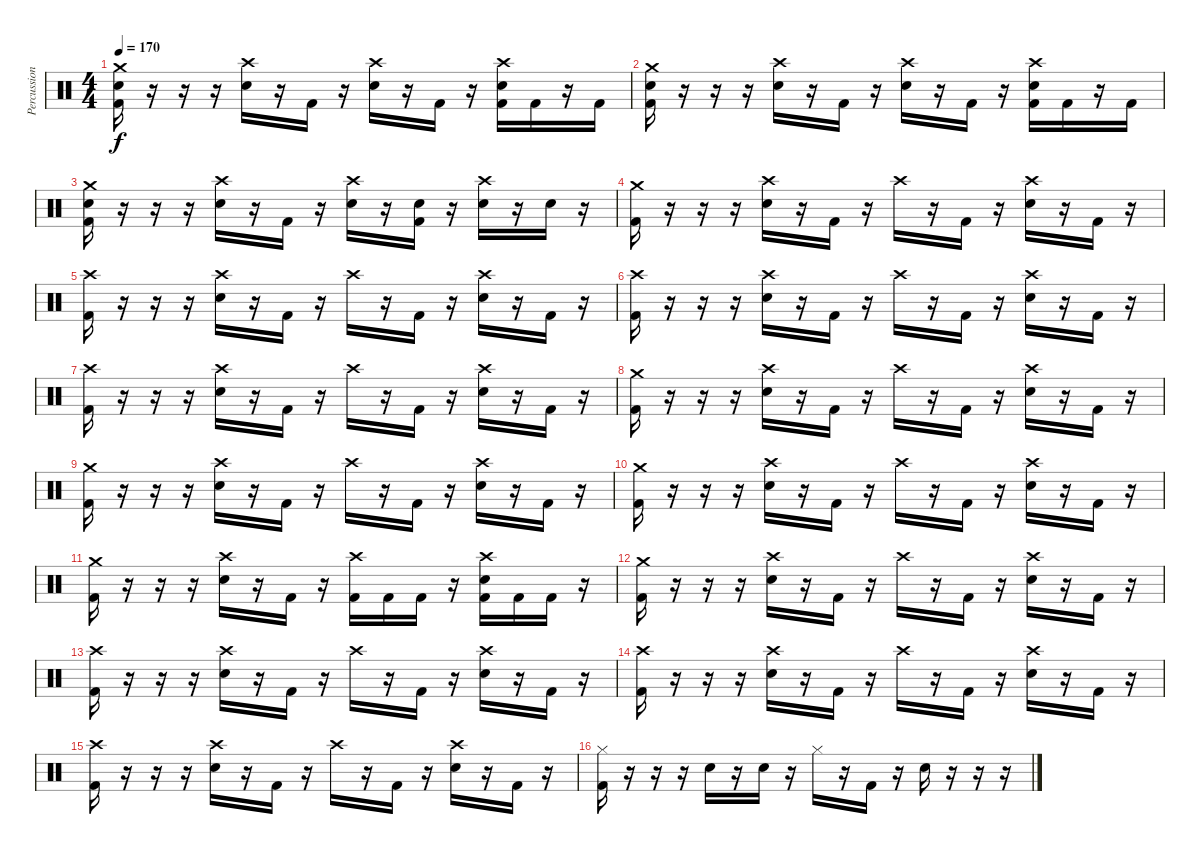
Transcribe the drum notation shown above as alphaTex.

\track ("Percussion" "Percussion") {instrument percussion}
\staff {score}
\articulation defaults
\ts (4 4)
\tempo 170
\clef neutral
\ks c
("Crash medium (hit)" "Snare (hit) 2" "Kick (hit) 2").16{dy f} r.16 r.16 r.16 ("Crash high (hit)" "Snare (hit) 2").16 r.16 "Kick (hit) 2".16 r.16 ("Crash high (hit)" "Snare (hit) 2").16 r.16 "Kick (hit) 2".16 r.16 ("Crash high (hit)" "Snare (hit) 2" "Kick (hit) 2").16 "Kick (hit) 2".16 r.16 "Kick (hit) 2".16 |
("Crash medium (hit)" "Snare (hit) 2" "Kick (hit) 2").16 r.16 r.16 r.16 ("Crash high (hit)" "Snare (hit) 2").16 r.16 "Kick (hit) 2".16 r.16 ("Crash high (hit)" "Snare (hit) 2").16 r.16 "Kick (hit) 2".16 r.16 ("Crash high (hit)" "Snare (hit) 2" "Kick (hit) 2").16 "Kick (hit) 2".16 r.16 "Kick (hit) 2".16 |
("Crash medium (hit)" "Snare (hit) 2" "Kick (hit) 2").16 r.16 r.16 r.16 ("Crash high (hit)" "Snare (hit) 2").16 r.16 "Kick (hit) 2".16 r.16 ("Crash high (hit)" "Snare (hit) 2").16 r.16 ("Snare (hit) 2" "Kick (hit) 2").16 r.16 ("Crash high (hit)" "Snare (hit) 2").16 r.16 "Snare (hit) 2".16 r.16 |
("Crash medium (hit)" "Kick (hit) 2").16 r.16 r.16 r.16 ("Crash high (hit)" "Snare (hit) 2").16 r.16 "Kick (hit) 2".16 r.16 "Crash high (hit)".16 r.16 "Kick (hit) 2".16 r.16 ("Crash high (hit)" "Snare (hit) 2").16 r.16 "Kick (hit) 2".16 r.16 |
("Crash high (hit)" "Kick (hit) 2").16 r.16 r.16 r.16 ("Crash high (hit)" "Snare (hit) 2").16 r.16 "Kick (hit) 2".16 r.16 "Crash high (hit)".16 r.16 "Kick (hit) 2".16 r.16 ("Crash high (hit)" "Snare (hit) 2").16 r.16 "Kick (hit) 2".16 r.16 |
("Crash high (hit)" "Kick (hit) 2").16 r.16 r.16 r.16 ("Crash high (hit)" "Snare (hit) 2").16 r.16 "Kick (hit) 2".16 r.16 "Crash high (hit)".16 r.16 "Kick (hit) 2".16 r.16 ("Crash high (hit)" "Snare (hit) 2").16 r.16 "Kick (hit) 2".16 r.16 |
("Crash high (hit)" "Kick (hit) 2").16 r.16 r.16 r.16 ("Crash high (hit)" "Snare (hit) 2").16 r.16 "Kick (hit) 2".16 r.16 "Crash high (hit)".16 r.16 "Kick (hit) 2".16 r.16 ("Crash high (hit)" "Snare (hit) 2").16 r.16 "Kick (hit) 2".16 r.16 |
("Crash medium (hit)" "Kick (hit) 2").16 r.16 r.16 r.16 ("Crash high (hit)" "Snare (hit) 2").16 r.16 "Kick (hit) 2".16 r.16 "Crash high (hit)".16 r.16 "Kick (hit) 2".16 r.16 ("Crash high (hit)" "Snare (hit) 2").16 r.16 "Kick (hit) 2".16 r.16 |
("Crash medium (hit)" "Kick (hit) 2").16 r.16 r.16 r.16 ("Crash high (hit)" "Snare (hit) 2").16 r.16 "Kick (hit) 2".16 r.16 "Crash high (hit)".16 r.16 "Kick (hit) 2".16 r.16 ("Crash high (hit)" "Snare (hit) 2").16 r.16 "Kick (hit) 2".16 r.16 |
("Crash medium (hit)" "Kick (hit) 2").16 r.16 r.16 r.16 ("Crash high (hit)" "Snare (hit) 2").16 r.16 "Kick (hit) 2".16 r.16 "Crash high (hit)".16 r.16 "Kick (hit) 2".16 r.16 ("Crash high (hit)" "Snare (hit) 2").16 r.16 "Kick (hit) 2".16 r.16 |
("Crash medium (hit)" "Kick (hit) 2").16 r.16 r.16 r.16 ("Crash high (hit)" "Snare (hit) 2").16 r.16 "Kick (hit) 2".16 r.16 ("Crash high (hit)" "Kick (hit) 2").16 "Kick (hit) 2".16 "Kick (hit) 2".16 r.16 ("Crash high (hit)" "Snare (hit) 2" "Kick (hit) 2").16 "Kick (hit) 2".16 "Kick (hit) 2".16 r.16 |
("Crash medium (hit)" "Kick (hit) 2").16 r.16 r.16 r.16 ("Crash high (hit)" "Snare (hit) 2").16 r.16 "Kick (hit) 2".16 r.16 "Crash high (hit)".16 r.16 "Kick (hit) 2".16 r.16 ("Crash high (hit)" "Snare (hit) 2").16 r.16 "Kick (hit) 2".16 r.16 |
("Crash high (hit)" "Kick (hit) 2").16 r.16 r.16 r.16 ("Crash high (hit)" "Snare (hit) 2").16 r.16 "Kick (hit) 2".16 r.16 "Crash high (hit)".16 r.16 "Kick (hit) 2".16 r.16 ("Crash high (hit)" "Snare (hit) 2").16 r.16 "Kick (hit) 2".16 r.16 |
("Crash high (hit)" "Kick (hit) 2").16 r.16 r.16 r.16 ("Crash high (hit)" "Snare (hit) 2").16 r.16 "Kick (hit) 2".16 r.16 "Crash high (hit)".16 r.16 "Kick (hit) 2".16 r.16 ("Crash high (hit)" "Snare (hit) 2").16 r.16 "Kick (hit) 2".16 r.16 |
("Crash high (hit)" "Kick (hit) 2").16 r.16 r.16 r.16 ("Crash high (hit)" "Snare (hit) 2").16 r.16 "Kick (hit) 2".16 r.16 "Crash high (hit)".16 r.16 "Kick (hit) 2".16 r.16 ("Crash high (hit)" "Snare (hit) 2").16 r.16 "Kick (hit) 2".16 r.16 |
("Hi-Hat (closed)" "Kick (hit) 2").16 r.16 r.16 r.16 "Snare (hit) 2".16 r.16 "Snare (hit) 2".16 r.16 "Hi-Hat (closed)".16 r.16 "Kick (hit) 2".16 r.16 "Snare (hit) 2".16 r.16 r.16 r.16
